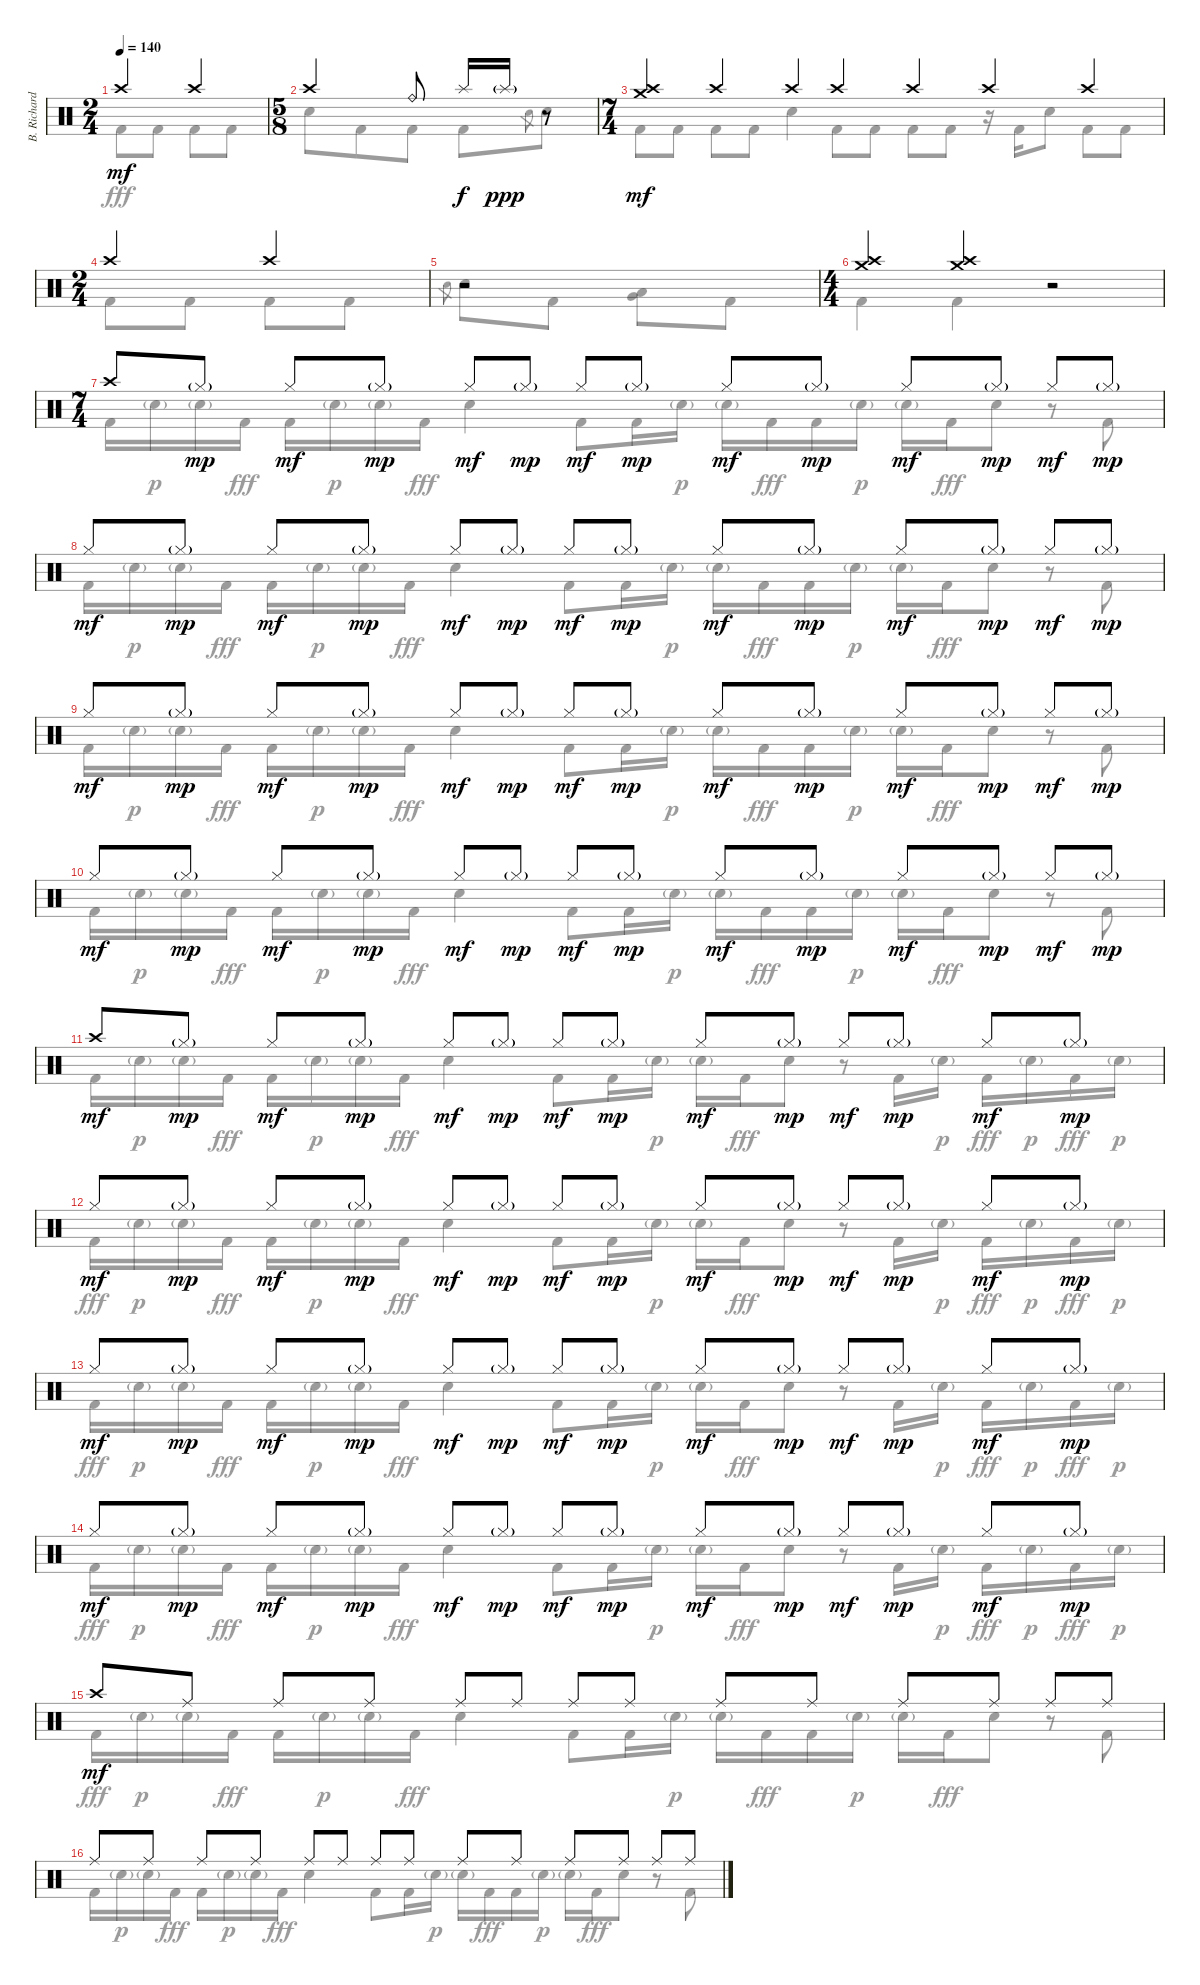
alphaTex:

\track ("B. Richardson Drums" "B. Richard") {instrument percussion}
\staff {score}
\articulation defaults
\voice
\ts (2 4)
\tempo 140
\clef neutral
\ks c "Crash high (hit)".4{dy mf} "Crash high (hit)".4
|
\ts (5 8)
"Crash high (hit)".4 "Ride (bell)".8 "Splash (hit)".16{dy f} "Splash (hit)"{g}.16{dy ppp} r.8 |
\ts (7 4)
("Crash high (hit)" "Crash medium (hit)").4{dy mf} "Crash high (hit)".4 "Crash high (hit)".4 "Crash high (hit)".4 "Crash high (hit)".4 "Crash high (hit)".4 "Crash high (hit)".4 |
\ts (2 4)
"Crash high (hit)".4 "Crash high (hit)".4 |
r.2 |
\ts (4 4)
("Crash high (hit)" "Crash medium (hit)").4 ("Crash medium (hit)" "Crash high (hit)").4 r.2 |
\ts (7 4)
"Crash high (hit)".8 "Hi-Hat (closed)"{g}.8{dy mp} "Hi-Hat (closed)".8{dy mf} "Hi-Hat (closed)"{g}.8{dy mp} "Hi-Hat (closed)".8{dy mf} "Hi-Hat (closed)"{g}.8{dy mp} "Hi-Hat (closed)".8{dy mf} "Hi-Hat (closed)"{g}.8{dy mp} "Hi-Hat (closed)".8{dy mf} "Hi-Hat (closed)"{g}.8{dy mp} "Hi-Hat (closed)".8{dy mf} "Hi-Hat (closed)"{g}.8{dy mp} "Hi-Hat (closed)".8{dy mf} "Hi-Hat (closed)"{g}.8{dy mp} |
"Hi-Hat (closed)".8{dy mf} "Hi-Hat (closed)"{g}.8{dy mp} "Hi-Hat (closed)".8{dy mf} "Hi-Hat (closed)"{g}.8{dy mp} "Hi-Hat (closed)".8{dy mf} "Hi-Hat (closed)"{g}.8{dy mp} "Hi-Hat (closed)".8{dy mf} "Hi-Hat (closed)"{g}.8{dy mp} "Hi-Hat (closed)".8{dy mf} "Hi-Hat (closed)"{g}.8{dy mp} "Hi-Hat (closed)".8{dy mf} "Hi-Hat (closed)"{g}.8{dy mp} "Hi-Hat (closed)".8{dy mf} "Hi-Hat (closed)"{g}.8{dy mp} |
"Hi-Hat (closed)".8{dy mf} "Hi-Hat (closed)"{g}.8{dy mp} "Hi-Hat (closed)".8{dy mf} "Hi-Hat (closed)"{g}.8{dy mp} "Hi-Hat (closed)".8{dy mf} "Hi-Hat (closed)"{g}.8{dy mp} "Hi-Hat (closed)".8{dy mf} "Hi-Hat (closed)"{g}.8{dy mp} "Hi-Hat (closed)".8{dy mf} "Hi-Hat (closed)"{g}.8{dy mp} "Hi-Hat (closed)".8{dy mf} "Hi-Hat (closed)"{g}.8{dy mp} "Hi-Hat (closed)".8{dy mf} "Hi-Hat (closed)"{g}.8{dy mp} |
"Hi-Hat (closed)".8{dy mf} "Hi-Hat (closed)"{g}.8{dy mp} "Hi-Hat (closed)".8{dy mf} "Hi-Hat (closed)"{g}.8{dy mp} "Hi-Hat (closed)".8{dy mf} "Hi-Hat (closed)"{g}.8{dy mp} "Hi-Hat (closed)".8{dy mf} "Hi-Hat (closed)"{g}.8{dy mp} "Hi-Hat (closed)".8{dy mf} "Hi-Hat (closed)"{g}.8{dy mp} "Hi-Hat (closed)".8{dy mf} "Hi-Hat (closed)"{g}.8{dy mp} "Hi-Hat (closed)".8{dy mf} "Hi-Hat (closed)"{g}.8{dy mp} |
"Crash high (hit)".8{dy mf} "Hi-Hat (closed)"{g}.8{dy mp} "Hi-Hat (closed)".8{dy mf} "Hi-Hat (closed)"{g}.8{dy mp} "Hi-Hat (closed)".8{dy mf} "Hi-Hat (closed)"{g}.8{dy mp} "Hi-Hat (closed)".8{dy mf} "Hi-Hat (closed)"{g}.8{dy mp} "Hi-Hat (closed)".8{dy mf} "Hi-Hat (closed)"{g}.8{dy mp} "Hi-Hat (closed)".8{dy mf} "Hi-Hat (closed)"{g}.8{dy mp} "Hi-Hat (closed)".8{dy mf} "Hi-Hat (closed)"{g}.8{dy mp} |
"Hi-Hat (closed)".8{dy mf} "Hi-Hat (closed)"{g}.8{dy mp} "Hi-Hat (closed)".8{dy mf} "Hi-Hat (closed)"{g}.8{dy mp} "Hi-Hat (closed)".8{dy mf} "Hi-Hat (closed)"{g}.8{dy mp} "Hi-Hat (closed)".8{dy mf} "Hi-Hat (closed)"{g}.8{dy mp} "Hi-Hat (closed)".8{dy mf} "Hi-Hat (closed)"{g}.8{dy mp} "Hi-Hat (closed)".8{dy mf} "Hi-Hat (closed)"{g}.8{dy mp} "Hi-Hat (closed)".8{dy mf} "Hi-Hat (closed)"{g}.8{dy mp} |
"Hi-Hat (closed)".8{dy mf} "Hi-Hat (closed)"{g}.8{dy mp} "Hi-Hat (closed)".8{dy mf} "Hi-Hat (closed)"{g}.8{dy mp} "Hi-Hat (closed)".8{dy mf} "Hi-Hat (closed)"{g}.8{dy mp} "Hi-Hat (closed)".8{dy mf} "Hi-Hat (closed)"{g}.8{dy mp} "Hi-Hat (closed)".8{dy mf} "Hi-Hat (closed)"{g}.8{dy mp} "Hi-Hat (closed)".8{dy mf} "Hi-Hat (closed)"{g}.8{dy mp} "Hi-Hat (closed)".8{dy mf} "Hi-Hat (closed)"{g}.8{dy mp} |
"Hi-Hat (closed)".8{dy mf} "Hi-Hat (closed)"{g}.8{dy mp} "Hi-Hat (closed)".8{dy mf} "Hi-Hat (closed)"{g}.8{dy mp} "Hi-Hat (closed)".8{dy mf} "Hi-Hat (closed)"{g}.8{dy mp} "Hi-Hat (closed)".8{dy mf} "Hi-Hat (closed)"{g}.8{dy mp} "Hi-Hat (closed)".8{dy mf} "Hi-Hat (closed)"{g}.8{dy mp} "Hi-Hat (closed)".8{dy mf} "Hi-Hat (closed)"{g}.8{dy mp} "Hi-Hat (closed)".8{dy mf} "Hi-Hat (closed)"{g}.8{dy mp} |
"Crash high (hit)".8{dy mf} "Ride (middle)".8 "Ride (middle)".8 "Ride (middle)".8 "Ride (middle)".8 "Ride (middle)".8 "Ride (middle)".8 "Ride (middle)".8 "Ride (middle)".8 "Ride (middle)".8 "Ride (middle)".8 "Ride (middle)".8 "Ride (middle)".8 "Ride (middle)".8 |
"Ride (middle)".8 "Ride (middle)".8 "Ride (middle)".8 "Ride (middle)".8 "Ride (middle)".8 "Ride (middle)".8 "Ride (middle)".8 "Ride (middle)".8 "Ride (middle)".8 "Ride (middle)".8 "Ride (middle)".8 "Ride (middle)".8 "Ride (middle)".8 "Ride (middle)".8
\voice
\clef neutral
\ottava regular
\simile none
\ks c "Kick (hit) 2".8{dy fff} "Kick (hit) 2".8 "Kick (hit) 2".8 "Kick (hit) 2".8
|
"Electric Snare (hit)".8 "Kick (hit) 2".8 "Kick (hit) 2".8 "Kick (hit) 2".8 "Electric Snare (hit)".8{gr} "Electric Snare (hit)".8 |
"Kick (hit) 2".8 "Kick (hit) 2".8 "Kick (hit) 2".8 "Kick (hit) 2".8 "Electric Snare (hit)".4 "Kick (hit) 2".8 "Kick (hit) 2".8 "Kick (hit) 2".8 "Kick (hit) 2".8 r.16 "Kick (hit) 2".16 "Electric Snare (hit)".8 "Kick (hit) 2".8 "Kick (hit) 2".8 |
"Kick (hit) 2".8 "Kick (hit) 2".8 "Kick (hit) 2".8 "Kick (hit) 2".8 |
"Electric Snare (hit)".8{gr} "Electric Snare (hit)".8 "Kick (hit) 2".8 ("Low Tom (hit)" "Very Low Tom (hit)").8 "Kick (hit) 2".8 |
"Kick (hit) 2".4 "Kick (hit) 2".4 r.2 |
"Kick (hit) 2".16 "Electric Snare (hit)"{g}.16{dy p} "Electric Snare (hit)"{g}.16 "Kick (hit) 2".16{dy fff} "Kick (hit) 2".16 "Electric Snare (hit)"{g}.16{dy p} "Electric Snare (hit)"{g}.16 "Kick (hit) 2".16{dy fff} "Electric Snare (hit)".4 "Kick (hit) 2".8 "Kick (hit) 2".16 "Electric Snare (hit)"{g}.16{dy p} "Electric Snare (hit)"{g}.16 "Kick (hit) 2".16{dy fff} "Kick (hit) 2".16 "Electric Snare (hit)"{g}.16{dy p} "Electric Snare (hit)"{g}.16 "Kick (hit) 2".16{dy fff} "Electric Snare (hit)".8 r.8 "Kick (hit) 2".8 |
"Kick (hit) 2".16 "Electric Snare (hit)"{g}.16{dy p} "Electric Snare (hit)"{g}.16 "Kick (hit) 2".16{dy fff} "Kick (hit) 2".16 "Electric Snare (hit)"{g}.16{dy p} "Electric Snare (hit)"{g}.16 "Kick (hit) 2".16{dy fff} "Electric Snare (hit)".4 "Kick (hit) 2".8 "Kick (hit) 2".16 "Electric Snare (hit)"{g}.16{dy p} "Electric Snare (hit)"{g}.16 "Kick (hit) 2".16{dy fff} "Kick (hit) 2".16 "Electric Snare (hit)"{g}.16{dy p} "Electric Snare (hit)"{g}.16 "Kick (hit) 2".16{dy fff} "Electric Snare (hit)".8 r.8 "Kick (hit) 2".8 |
"Kick (hit) 2".16 "Electric Snare (hit)"{g}.16{dy p} "Electric Snare (hit)"{g}.16 "Kick (hit) 2".16{dy fff} "Kick (hit) 2".16 "Electric Snare (hit)"{g}.16{dy p} "Electric Snare (hit)"{g}.16 "Kick (hit) 2".16{dy fff} "Electric Snare (hit)".4 "Kick (hit) 2".8 "Kick (hit) 2".16 "Electric Snare (hit)"{g}.16{dy p} "Electric Snare (hit)"{g}.16 "Kick (hit) 2".16{dy fff} "Kick (hit) 2".16 "Electric Snare (hit)"{g}.16{dy p} "Electric Snare (hit)"{g}.16 "Kick (hit) 2".16{dy fff} "Electric Snare (hit)".8 r.8 "Kick (hit) 2".8 |
"Kick (hit) 2".16 "Electric Snare (hit)"{g}.16{dy p} "Electric Snare (hit)"{g}.16 "Kick (hit) 2".16{dy fff} "Kick (hit) 2".16 "Electric Snare (hit)"{g}.16{dy p} "Electric Snare (hit)"{g}.16 "Kick (hit) 2".16{dy fff} "Electric Snare (hit)".4 "Kick (hit) 2".8 "Kick (hit) 2".16 "Electric Snare (hit)"{g}.16{dy p} "Electric Snare (hit)"{g}.16 "Kick (hit) 2".16{dy fff} "Kick (hit) 2".16 "Electric Snare (hit)"{g}.16{dy p} "Electric Snare (hit)"{g}.16 "Kick (hit) 2".16{dy fff} "Electric Snare (hit)".8 r.8 "Kick (hit) 2".8 |
"Kick (hit) 2".16 "Electric Snare (hit)"{g}.16{dy p} "Electric Snare (hit)"{g}.16 "Kick (hit) 2".16{dy fff} "Kick (hit) 2".16 "Electric Snare (hit)"{g}.16{dy p} "Electric Snare (hit)"{g}.16 "Kick (hit) 2".16{dy fff} "Electric Snare (hit)".4 "Kick (hit) 2".8 "Kick (hit) 2".16 "Electric Snare (hit)"{g}.16{dy p} "Electric Snare (hit)"{g}.16 "Kick (hit) 2".16{dy fff} "Electric Snare (hit)".8 r.8 "Kick (hit) 2".16 "Electric Snare (hit)"{g}.16{dy p} "Kick (hit) 2".16{dy fff} "Electric Snare (hit)"{g}.16{dy p} "Kick (hit) 2".16{dy fff} "Electric Snare (hit)"{g}.16{dy p} |
"Kick (hit) 2".16{dy fff} "Electric Snare (hit)"{g}.16{dy p} "Electric Snare (hit)"{g}.16 "Kick (hit) 2".16{dy fff} "Kick (hit) 2".16 "Electric Snare (hit)"{g}.16{dy p} "Electric Snare (hit)"{g}.16 "Kick (hit) 2".16{dy fff} "Electric Snare (hit)".4 "Kick (hit) 2".8 "Kick (hit) 2".16 "Electric Snare (hit)"{g}.16{dy p} "Electric Snare (hit)"{g}.16 "Kick (hit) 2".16{dy fff} "Electric Snare (hit)".8 r.8 "Kick (hit) 2".16 "Electric Snare (hit)"{g}.16{dy p} "Kick (hit) 2".16{dy fff} "Electric Snare (hit)"{g}.16{dy p} "Kick (hit) 2".16{dy fff} "Electric Snare (hit)"{g}.16{dy p} |
"Kick (hit) 2".16{dy fff} "Electric Snare (hit)"{g}.16{dy p} "Electric Snare (hit)"{g}.16 "Kick (hit) 2".16{dy fff} "Kick (hit) 2".16 "Electric Snare (hit)"{g}.16{dy p} "Electric Snare (hit)"{g}.16 "Kick (hit) 2".16{dy fff} "Electric Snare (hit)".4 "Kick (hit) 2".8 "Kick (hit) 2".16 "Electric Snare (hit)"{g}.16{dy p} "Electric Snare (hit)"{g}.16 "Kick (hit) 2".16{dy fff} "Electric Snare (hit)".8 r.8 "Kick (hit) 2".16 "Electric Snare (hit)"{g}.16{dy p} "Kick (hit) 2".16{dy fff} "Electric Snare (hit)"{g}.16{dy p} "Kick (hit) 2".16{dy fff} "Electric Snare (hit)"{g}.16{dy p} |
"Kick (hit) 2".16{dy fff} "Electric Snare (hit)"{g}.16{dy p} "Electric Snare (hit)"{g}.16 "Kick (hit) 2".16{dy fff} "Kick (hit) 2".16 "Electric Snare (hit)"{g}.16{dy p} "Electric Snare (hit)"{g}.16 "Kick (hit) 2".16{dy fff} "Electric Snare (hit)".4 "Kick (hit) 2".8 "Kick (hit) 2".16 "Electric Snare (hit)"{g}.16{dy p} "Electric Snare (hit)"{g}.16 "Kick (hit) 2".16{dy fff} "Electric Snare (hit)".8 r.8 "Kick (hit) 2".16 "Electric Snare (hit)"{g}.16{dy p} "Kick (hit) 2".16{dy fff} "Electric Snare (hit)"{g}.16{dy p} "Kick (hit) 2".16{dy fff} "Electric Snare (hit)"{g}.16{dy p} |
"Kick (hit) 2".16{dy fff} "Electric Snare (hit)"{g}.16{dy p} "Electric Snare (hit)"{g}.16 "Kick (hit) 2".16{dy fff} "Kick (hit) 2".16 "Electric Snare (hit)"{g}.16{dy p} "Electric Snare (hit)"{g}.16 "Kick (hit) 2".16{dy fff} "Electric Snare (hit)".4 "Kick (hit) 2".8 "Kick (hit) 2".16 "Electric Snare (hit)"{g}.16{dy p} "Electric Snare (hit)"{g}.16 "Kick (hit) 2".16{dy fff} "Kick (hit) 2".16 "Electric Snare (hit)"{g}.16{dy p} "Electric Snare (hit)"{g}.16 "Kick (hit) 2".16{dy fff} "Electric Snare (hit)".8 r.8 "Kick (hit) 2".8 |
"Kick (hit) 2".16 "Electric Snare (hit)"{g}.16{dy p} "Electric Snare (hit)"{g}.16 "Kick (hit) 2".16{dy fff} "Kick (hit) 2".16 "Electric Snare (hit)"{g}.16{dy p} "Electric Snare (hit)"{g}.16 "Kick (hit) 2".16{dy fff} "Electric Snare (hit)".4 "Kick (hit) 2".8 "Kick (hit) 2".16 "Electric Snare (hit)"{g}.16{dy p} "Electric Snare (hit)"{g}.16 "Kick (hit) 2".16{dy fff} "Kick (hit) 2".16 "Electric Snare (hit)"{g}.16{dy p} "Electric Snare (hit)"{g}.16 "Kick (hit) 2".16{dy fff} "Electric Snare (hit)".8 r.8 "Kick (hit) 2".8
